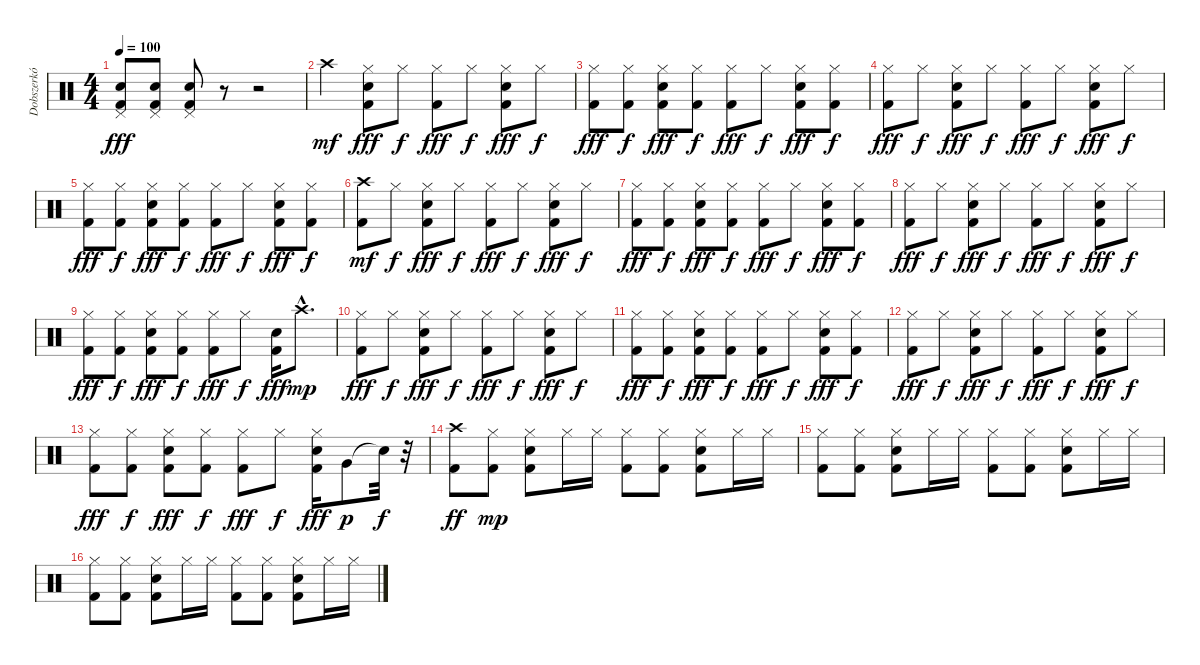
\track ("Dobszerkó" "Dobszerkó") {instrument percussion}
\staff {score}
\articulation defaults
\ts (4 4)
\tempo 100
\clef neutral
\ks c
("Electric Snare (hit)" "Kick (hit) 2" "Pedal Hi-Hat (hit)").8{dy fff} ("Electric Snare (hit)" "Kick (hit) 2" "Pedal Hi-Hat (hit)").8 ("Electric Snare (hit)" "Kick (hit) 2" "Pedal Hi-Hat (hit)").8 r.8 r.2 |
"Crash high (hit)".4{dy mf} ("Electric Snare (hit)" "Kick (hit) 2" "Hi-Hat (closed)").8{dy fff} "Hi-Hat (closed)".8{dy f} ("Kick (hit) 2" "Hi-Hat (closed)").8{dy fff} "Hi-Hat (closed)".8{dy f} ("Electric Snare (hit)" "Kick (hit) 2" "Hi-Hat (closed)").8{dy fff} "Hi-Hat (closed)".8{dy f} |
("Kick (hit) 2" "Hi-Hat (closed)").8{dy fff} ("Kick (hit) 2" "Hi-Hat (closed)").8{dy f} ("Electric Snare (hit)" "Kick (hit) 2" "Hi-Hat (closed)").8{dy fff} ("Kick (hit) 2" "Hi-Hat (closed)").8{dy f} ("Kick (hit) 2" "Hi-Hat (closed)").8{dy fff} "Hi-Hat (closed)".8{dy f} ("Electric Snare (hit)" "Kick (hit) 2" "Hi-Hat (closed)").8{dy fff} ("Kick (hit) 2" "Hi-Hat (closed)").8{dy f} |
("Kick (hit) 2" "Hi-Hat (closed)").8{dy fff} "Hi-Hat (closed)".8{dy f} ("Electric Snare (hit)" "Kick (hit) 2" "Hi-Hat (closed)").8{dy fff} "Hi-Hat (closed)".8{dy f} ("Kick (hit) 2" "Hi-Hat (closed)").8{dy fff} "Hi-Hat (closed)".8{dy f} ("Electric Snare (hit)" "Kick (hit) 2" "Hi-Hat (closed)").8{dy fff} "Hi-Hat (closed)".8{dy f} |
("Kick (hit) 2" "Hi-Hat (closed)").8{dy fff} ("Kick (hit) 2" "Hi-Hat (closed)").8{dy f} ("Electric Snare (hit)" "Kick (hit) 2" "Hi-Hat (closed)").8{dy fff} ("Kick (hit) 2" "Hi-Hat (closed)").8{dy f} ("Kick (hit) 2" "Hi-Hat (closed)").8{dy fff} "Hi-Hat (closed)".8{dy f} ("Electric Snare (hit)" "Kick (hit) 2" "Hi-Hat (closed)").8{dy fff} ("Kick (hit) 2" "Hi-Hat (closed)").8{dy f} |
("Kick (hit) 2" "Crash high (hit)").8{dy mf} "Hi-Hat (closed)".8{dy f} ("Electric Snare (hit)" "Kick (hit) 2" "Hi-Hat (closed)").8{dy fff} "Hi-Hat (closed)".8{dy f} ("Kick (hit) 2" "Hi-Hat (closed)").8{dy fff} "Hi-Hat (closed)".8{dy f} ("Electric Snare (hit)" "Kick (hit) 2" "Hi-Hat (closed)").8{dy fff} "Hi-Hat (closed)".8{dy f} |
("Kick (hit) 2" "Hi-Hat (closed)").8{dy fff} ("Kick (hit) 2" "Hi-Hat (closed)").8{dy f} ("Electric Snare (hit)" "Kick (hit) 2" "Hi-Hat (closed)").8{dy fff} ("Kick (hit) 2" "Hi-Hat (closed)").8{dy f} ("Kick (hit) 2" "Hi-Hat (closed)").8{dy fff} "Hi-Hat (closed)".8{dy f} ("Electric Snare (hit)" "Kick (hit) 2" "Hi-Hat (closed)").8{dy fff} ("Kick (hit) 2" "Hi-Hat (closed)").8{dy f} |
("Kick (hit) 2" "Hi-Hat (closed)").8{dy fff} "Hi-Hat (closed)".8{dy f} ("Electric Snare (hit)" "Kick (hit) 2" "Hi-Hat (closed)").8{dy fff} "Hi-Hat (closed)".8{dy f} ("Kick (hit) 2" "Hi-Hat (closed)").8{dy fff} "Hi-Hat (closed)".8{dy f} ("Electric Snare (hit)" "Kick (hit) 2" "Hi-Hat (closed)").8{dy fff} "Hi-Hat (closed)".8{dy f} |
("Kick (hit) 2" "Hi-Hat (closed)").8{dy fff} ("Kick (hit) 2" "Hi-Hat (closed)").8{dy f} ("Electric Snare (hit)" "Kick (hit) 2" "Hi-Hat (closed)").8{dy fff} ("Kick (hit) 2" "Hi-Hat (closed)").8{dy f} ("Kick (hit) 2" "Hi-Hat (closed)").8{dy fff} "Hi-Hat (closed)".8{dy f} ("Electric Snare (hit)" "Kick (hit) 2").16{dy fff} "Crash high (hit)"{hac}.8{d dy mp} |
("Kick (hit) 2" "Hi-Hat (closed)").8{dy fff} "Hi-Hat (closed)".8{dy f} ("Electric Snare (hit)" "Kick (hit) 2" "Hi-Hat (closed)").8{dy fff} "Hi-Hat (closed)".8{dy f} ("Kick (hit) 2" "Hi-Hat (closed)").8{dy fff} "Hi-Hat (closed)".8{dy f} ("Electric Snare (hit)" "Kick (hit) 2" "Hi-Hat (closed)").8{dy fff} "Hi-Hat (closed)".8{dy f} |
("Kick (hit) 2" "Hi-Hat (closed)").8{dy fff} ("Kick (hit) 2" "Hi-Hat (closed)").8{dy f} ("Electric Snare (hit)" "Kick (hit) 2" "Hi-Hat (closed)").8{dy fff} ("Kick (hit) 2" "Hi-Hat (closed)").8{dy f} ("Kick (hit) 2" "Hi-Hat (closed)").8{dy fff} "Hi-Hat (closed)".8{dy f} ("Electric Snare (hit)" "Kick (hit) 2" "Hi-Hat (closed)").8{dy fff} ("Kick (hit) 2" "Hi-Hat (closed)").8{dy f} |
("Kick (hit) 2" "Hi-Hat (closed)").8{dy fff} "Hi-Hat (closed)".8{dy f} ("Electric Snare (hit)" "Kick (hit) 2" "Hi-Hat (closed)").8{dy fff} "Hi-Hat (closed)".8{dy f} ("Kick (hit) 2" "Hi-Hat (closed)").8{dy fff} "Hi-Hat (closed)".8{dy f} ("Electric Snare (hit)" "Kick (hit) 2" "Hi-Hat (closed)").8{dy fff} "Hi-Hat (closed)".8{dy f} |
("Kick (hit) 2" "Hi-Hat (closed)").8{dy fff} ("Kick (hit) 2" "Hi-Hat (closed)").8{dy f} ("Electric Snare (hit)" "Kick (hit) 2" "Hi-Hat (closed)").8{dy fff} ("Kick (hit) 2" "Hi-Hat (closed)").8{dy f} ("Kick (hit) 2" "Hi-Hat (closed)").8{dy fff} "Hi-Hat (closed)".8{dy f} ("Electric Snare (hit)" "Kick (hit) 2" "Hi-Hat (closed)").16{dy fff} "Very Low Tom (hit)"{tr (43 32)}.8{dy p} "Snare (hit)"{t}.32{dy f} r.32 |
("Kick (hit) 2" "Crash high (hit)").8{dy ff} ("Kick (hit) 2" "Hi-Hat (closed)").8{dy mp} ("Electric Snare (hit)" "Kick (hit) 2" "Hi-Hat (closed)").8 "Hi-Hat (closed)".16 "Hi-Hat (closed)".16 ("Kick (hit) 2" "Hi-Hat (closed)").8 ("Kick (hit) 2" "Hi-Hat (closed)").8 ("Electric Snare (hit)" "Kick (hit) 2" "Hi-Hat (closed)").8 "Hi-Hat (closed)".16 "Hi-Hat (closed)".16 |
("Kick (hit) 2" "Hi-Hat (closed)").8 ("Kick (hit) 2" "Hi-Hat (closed)").8 ("Electric Snare (hit)" "Kick (hit) 2" "Hi-Hat (closed)").8 "Hi-Hat (closed)".16 "Hi-Hat (closed)".16 ("Kick (hit) 2" "Hi-Hat (closed)").8 ("Kick (hit) 2" "Hi-Hat (closed)").8 ("Electric Snare (hit)" "Kick (hit) 2" "Hi-Hat (closed)").8 "Hi-Hat (closed)".16 "Hi-Hat (closed)".16 |
("Kick (hit) 2" "Hi-Hat (closed)").8 ("Kick (hit) 2" "Hi-Hat (closed)").8 ("Electric Snare (hit)" "Kick (hit) 2" "Hi-Hat (closed)").8 "Hi-Hat (closed)".16 "Hi-Hat (closed)".16 ("Kick (hit) 2" "Hi-Hat (closed)").8 ("Kick (hit) 2" "Hi-Hat (closed)").8 ("Electric Snare (hit)" "Kick (hit) 2" "Hi-Hat (closed)").8 "Hi-Hat (closed)".16 "Hi-Hat (closed)".16
